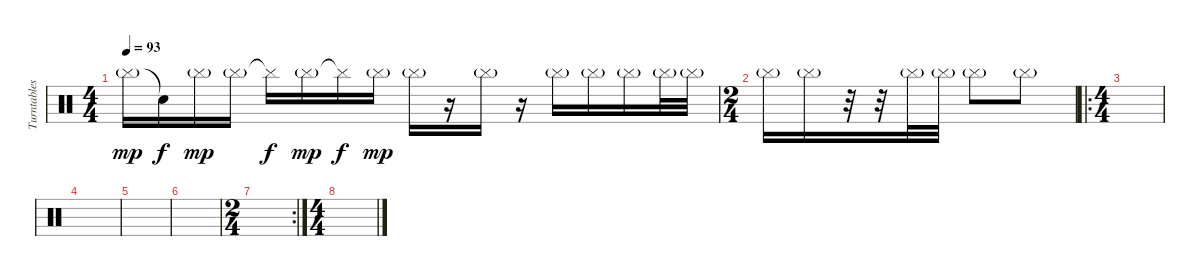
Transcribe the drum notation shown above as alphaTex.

\track ("Turntables" "Turntables") {instrument percussion}
\staff {score}
\articulation defaults
\ts (4 4)
\tempo 93
\clef neutral
\ks c "Cymbal (hit)"{g}.16{dy mp} "Snare (hit)"{t}.16{dy f} "Cymbal (hit)"{g}.16{dy mp} "Cymbal (hit)"{g}.16 "Cymbal (hit)"{t}.16{dy f} "Cymbal (hit)"{g}.16{dy mp} "Cymbal (hit)"{t}.16{dy f} "Cymbal (hit)"{g}.16{dy mp} "Cymbal (hit)"{g}.16
r.16 "Cymbal (hit)"{g}.16 r.16 "Cymbal (hit)"{g}.16 "Cymbal (hit)"{g}.16 "Cymbal (hit)"{g}.16 "Cymbal (hit)"{g}.32 "Cymbal (hit)"{g}.32 |
\ts (2 4)
"Cymbal (hit)"{g}.16 "Cymbal (hit)"{g}.16 r.32 r.32 "Cymbal (hit)"{g}.32 "Cymbal (hit)"{g}.32 "Cymbal (hit)"{g}.8 "Cymbal (hit)"{g}.8 |
\ro
\ts (4 4)
|
|
|
|
\rc 2
\ts (2 4)
|
\ts (4 4)
